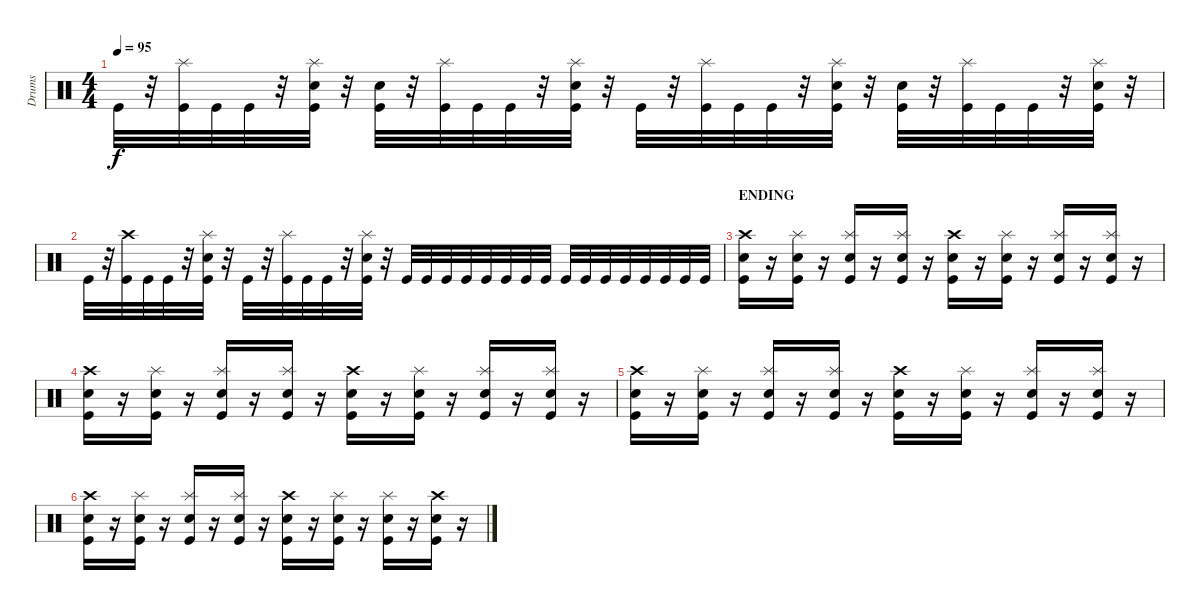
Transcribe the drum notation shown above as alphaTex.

\track ("Drums" "Drums") {instrument percussion}
\staff {score}
\articulation defaults
\ts (4 4)
\tempo 95
\clef neutral
\ks c "Kick (hit)".32{dy f}
r.32 ("Splash (hit)" "Kick (hit)").32 "Kick (hit)".32 "Kick (hit)".32 r.32 ("Splash (hit)" "Snare (hit) 2" "Kick (hit)").32 r.32 ("Snare (hit) 2" "Kick (hit)").32 r.32 ("Splash (hit)" "Kick (hit)").32 "Kick (hit)".32 "Kick (hit)".32 r.32 ("Splash (hit)" "Snare (hit) 2" "Kick (hit)").32 r.32 "Kick (hit)".32 r.32 ("Splash (hit)" "Kick (hit)").32 "Kick (hit)".32 "Kick (hit)".32 r.32 ("Splash (hit)" "Snare (hit) 2" "Kick (hit)").32 r.32 ("Snare (hit) 2" "Kick (hit)").32 r.32 ("Splash (hit)" "Kick (hit)").32 "Kick (hit)".32 "Kick (hit)".32 r.32 ("Splash (hit)" "Snare (hit) 2" "Kick (hit)").32 r.32 |
"Kick (hit)".32 r.32 ("Crash high (hit)" "Kick (hit)").32 "Kick (hit)".32 "Kick (hit)".32 r.32 ("Splash (hit)" "Snare (hit) 2" "Kick (hit)").32 r.32 "Kick (hit)".32 r.32 ("Splash (hit)" "Kick (hit)").32 "Kick (hit)".32 "Kick (hit)".32 r.32 ("Splash (hit)" "Snare (hit) 2" "Kick (hit)").32 r.32 "Kick (hit)".32 "Kick (hit)".32 "Kick (hit)".32 "Kick (hit)".32 "Kick (hit)".32 "Kick (hit)".32 "Kick (hit)".32 "Kick (hit)".32 "Kick (hit)".32 "Kick (hit)".32 "Kick (hit)".32 "Kick (hit)".32 "Kick (hit)".32 "Kick (hit)".32 "Kick (hit)".32 "Kick (hit)".32 |
\section ("" "ENDING")
("Crash high (hit)" "Snare (hit) 2" "Kick (hit)").16 r.16 ("Splash (hit)" "Snare (hit) 2" "Kick (hit)").16 r.16 ("Splash (hit)" "Snare (hit) 2" "Kick (hit)").16 r.16 ("Splash (hit)" "Snare (hit) 2" "Kick (hit)").16 r.16 ("Crash high (hit)" "Snare (hit) 2" "Kick (hit)").16 r.16 ("Splash (hit)" "Snare (hit) 2" "Kick (hit)").16 r.16 ("Splash (hit)" "Snare (hit) 2" "Kick (hit)").16 r.16 ("Splash (hit)" "Snare (hit) 2" "Kick (hit)").16 r.16 |
("Crash high (hit)" "Snare (hit) 2" "Kick (hit)").16 r.16 ("Splash (hit)" "Snare (hit) 2" "Kick (hit)").16 r.16 ("Splash (hit)" "Snare (hit) 2" "Kick (hit)").16 r.16 ("Splash (hit)" "Snare (hit) 2" "Kick (hit)").16 r.16 ("Crash high (hit)" "Snare (hit) 2" "Kick (hit)").16 r.16 ("Splash (hit)" "Snare (hit) 2" "Kick (hit)").16 r.16 ("Splash (hit)" "Snare (hit) 2" "Kick (hit)").16 r.16 ("Splash (hit)" "Snare (hit) 2" "Kick (hit)").16 r.16 |
("Crash high (hit)" "Snare (hit) 2" "Kick (hit)").16 r.16 ("Splash (hit)" "Snare (hit) 2" "Kick (hit)").16 r.16 ("Splash (hit)" "Snare (hit) 2" "Kick (hit)").16 r.16 ("Splash (hit)" "Snare (hit) 2" "Kick (hit)").16 r.16 ("Crash high (hit)" "Snare (hit) 2" "Kick (hit)").16 r.16 ("Splash (hit)" "Snare (hit) 2" "Kick (hit)").16 r.16 ("Splash (hit)" "Snare (hit) 2" "Kick (hit)").16 r.16 ("Splash (hit)" "Snare (hit) 2" "Kick (hit)").16 r.16 |
("Crash high (hit)" "Snare (hit) 2" "Kick (hit)").16 r.16 ("Splash (hit)" "Snare (hit) 2" "Kick (hit)").16 r.16 ("Splash (hit)" "Snare (hit) 2" "Kick (hit)").16 r.16 ("Splash (hit)" "Snare (hit) 2" "Kick (hit)").16 r.16 ("Crash high (hit)" "Snare (hit) 2" "Kick (hit)").16 r.16 ("Splash (hit)" "Snare (hit) 2" "Kick (hit)").16 r.16 ("Splash (hit)" "Snare (hit) 2" "Kick (hit)").16 r.16 ("Crash high (hit)" "Snare (hit) 2" "Kick (hit)").16 r.16
